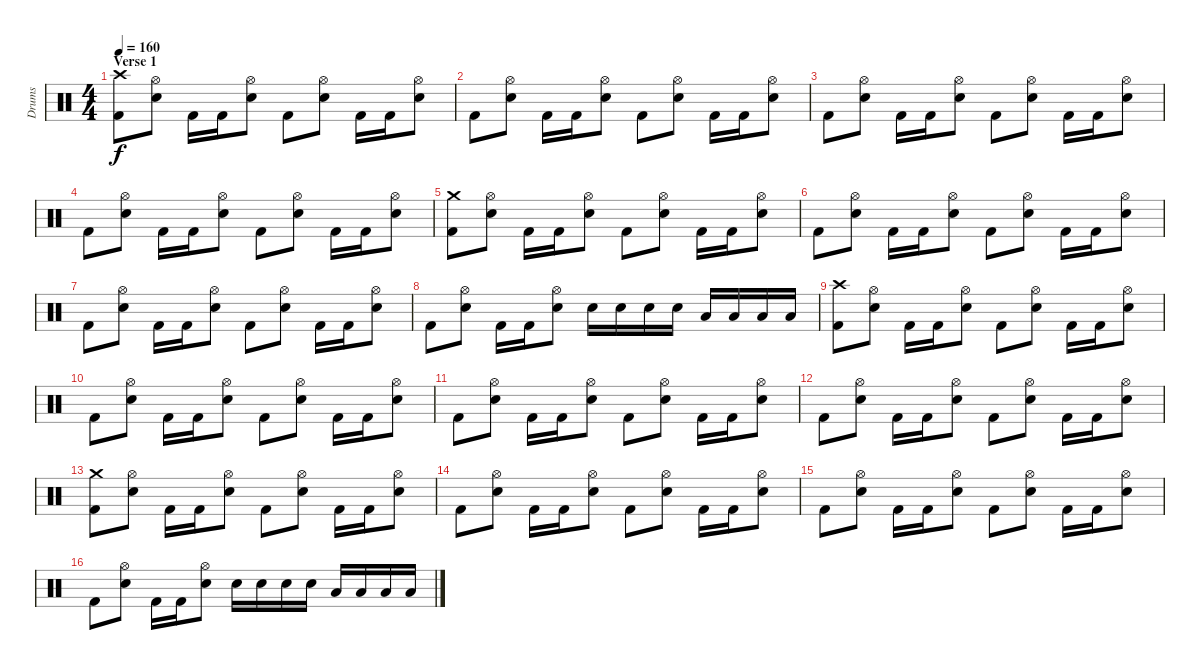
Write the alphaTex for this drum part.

\track ("Drums" "Drums") {instrument percussion}
\staff {score}
\articulation defaults
\ts (4 4)
\section ("" "Verse 1")
\tempo 160
\clef neutral
\ks c
("Crash high (hit)" "Kick (hit) 2").8{dy f} ("Hi-Hat (open)" "Snare (hit) 2").8 "Kick (hit) 2".16 "Kick (hit) 2".16 ("Hi-Hat (open)" "Snare (hit) 2").8 "Kick (hit) 2".8 ("Hi-Hat (open)" "Snare (hit) 2").8 "Kick (hit) 2".16 "Kick (hit) 2".16 ("Hi-Hat (open)" "Snare (hit) 2").8 |
"Kick (hit) 2".8 ("Hi-Hat (open)" "Snare (hit) 2").8 "Kick (hit) 2".16 "Kick (hit) 2".16 ("Hi-Hat (open)" "Snare (hit) 2").8 "Kick (hit) 2".8 ("Hi-Hat (open)" "Snare (hit) 2").8 "Kick (hit) 2".16 "Kick (hit) 2".16 ("Hi-Hat (open)" "Snare (hit) 2").8 |
"Kick (hit) 2".8 ("Hi-Hat (open)" "Snare (hit) 2").8 "Kick (hit) 2".16 "Kick (hit) 2".16 ("Hi-Hat (open)" "Snare (hit) 2").8 "Kick (hit) 2".8 ("Hi-Hat (open)" "Snare (hit) 2").8 "Kick (hit) 2".16 "Kick (hit) 2".16 ("Hi-Hat (open)" "Snare (hit) 2").8 |
"Kick (hit) 2".8 ("Hi-Hat (open)" "Snare (hit) 2").8 "Kick (hit) 2".16 "Kick (hit) 2".16 ("Hi-Hat (open)" "Snare (hit) 2").8 "Kick (hit) 2".8 ("Hi-Hat (open)" "Snare (hit) 2").8 "Kick (hit) 2".16 "Kick (hit) 2".16 ("Hi-Hat (open)" "Snare (hit) 2").8 |
("Crash medium (hit)" "Kick (hit) 2").8 ("Hi-Hat (open)" "Snare (hit) 2").8 "Kick (hit) 2".16 "Kick (hit) 2".16 ("Hi-Hat (open)" "Snare (hit) 2").8 "Kick (hit) 2".8 ("Hi-Hat (open)" "Snare (hit) 2").8 "Kick (hit) 2".16 "Kick (hit) 2".16 ("Hi-Hat (open)" "Snare (hit) 2").8 |
"Kick (hit) 2".8 ("Hi-Hat (open)" "Snare (hit) 2").8 "Kick (hit) 2".16 "Kick (hit) 2".16 ("Hi-Hat (open)" "Snare (hit) 2").8 "Kick (hit) 2".8 ("Hi-Hat (open)" "Snare (hit) 2").8 "Kick (hit) 2".16 "Kick (hit) 2".16 ("Hi-Hat (open)" "Snare (hit) 2").8 |
"Kick (hit) 2".8 ("Hi-Hat (open)" "Snare (hit) 2").8 "Kick (hit) 2".16 "Kick (hit) 2".16 ("Hi-Hat (open)" "Snare (hit) 2").8 "Kick (hit) 2".8 ("Hi-Hat (open)" "Snare (hit) 2").8 "Kick (hit) 2".16 "Kick (hit) 2".16 ("Hi-Hat (open)" "Snare (hit) 2").8 |
"Kick (hit) 2".8 ("Hi-Hat (open)" "Snare (hit) 2").8 "Kick (hit) 2".16 "Kick (hit) 2".16 ("Hi-Hat (open)" "Snare (hit) 2").8 "Snare (hit) 2".16 "Snare (hit) 2".16 "Snare (hit) 2".16 "Snare (hit) 2".16 "Low Tom (hit)".16 "Low Tom (hit)".16 "Low Tom (hit)".16 "Low Tom (hit)".16 |
("Crash high (hit)" "Kick (hit) 2").8 ("Hi-Hat (open)" "Snare (hit) 2").8 "Kick (hit) 2".16 "Kick (hit) 2".16 ("Hi-Hat (open)" "Snare (hit) 2").8 "Kick (hit) 2".8 ("Hi-Hat (open)" "Snare (hit) 2").8 "Kick (hit) 2".16 "Kick (hit) 2".16 ("Hi-Hat (open)" "Snare (hit) 2").8 |
"Kick (hit) 2".8 ("Hi-Hat (open)" "Snare (hit) 2").8 "Kick (hit) 2".16 "Kick (hit) 2".16 ("Hi-Hat (open)" "Snare (hit) 2").8 "Kick (hit) 2".8 ("Hi-Hat (open)" "Snare (hit) 2").8 "Kick (hit) 2".16 "Kick (hit) 2".16 ("Hi-Hat (open)" "Snare (hit) 2").8 |
"Kick (hit) 2".8 ("Hi-Hat (open)" "Snare (hit) 2").8 "Kick (hit) 2".16 "Kick (hit) 2".16 ("Hi-Hat (open)" "Snare (hit) 2").8 "Kick (hit) 2".8 ("Hi-Hat (open)" "Snare (hit) 2").8 "Kick (hit) 2".16 "Kick (hit) 2".16 ("Hi-Hat (open)" "Snare (hit) 2").8 |
"Kick (hit) 2".8 ("Hi-Hat (open)" "Snare (hit) 2").8 "Kick (hit) 2".16 "Kick (hit) 2".16 ("Hi-Hat (open)" "Snare (hit) 2").8 "Kick (hit) 2".8 ("Hi-Hat (open)" "Snare (hit) 2").8 "Kick (hit) 2".16 "Kick (hit) 2".16 ("Hi-Hat (open)" "Snare (hit) 2").8 |
("Crash medium (hit)" "Kick (hit) 2").8 ("Hi-Hat (open)" "Snare (hit) 2").8 "Kick (hit) 2".16 "Kick (hit) 2".16 ("Hi-Hat (open)" "Snare (hit) 2").8 "Kick (hit) 2".8 ("Hi-Hat (open)" "Snare (hit) 2").8 "Kick (hit) 2".16 "Kick (hit) 2".16 ("Hi-Hat (open)" "Snare (hit) 2").8 |
"Kick (hit) 2".8 ("Hi-Hat (open)" "Snare (hit) 2").8 "Kick (hit) 2".16 "Kick (hit) 2".16 ("Hi-Hat (open)" "Snare (hit) 2").8 "Kick (hit) 2".8 ("Hi-Hat (open)" "Snare (hit) 2").8 "Kick (hit) 2".16 "Kick (hit) 2".16 ("Hi-Hat (open)" "Snare (hit) 2").8 |
"Kick (hit) 2".8 ("Hi-Hat (open)" "Snare (hit) 2").8 "Kick (hit) 2".16 "Kick (hit) 2".16 ("Hi-Hat (open)" "Snare (hit) 2").8 "Kick (hit) 2".8 ("Hi-Hat (open)" "Snare (hit) 2").8 "Kick (hit) 2".16 "Kick (hit) 2".16 ("Hi-Hat (open)" "Snare (hit) 2").8 |
"Kick (hit) 2".8 ("Hi-Hat (open)" "Snare (hit) 2").8 "Kick (hit) 2".16 "Kick (hit) 2".16 ("Hi-Hat (open)" "Snare (hit) 2").8 "Snare (hit) 2".16 "Snare (hit) 2".16 "Snare (hit) 2".16 "Snare (hit) 2".16 "Low Tom (hit)".16 "Low Tom (hit)".16 "Low Tom (hit)".16 "Low Tom (hit)".16
